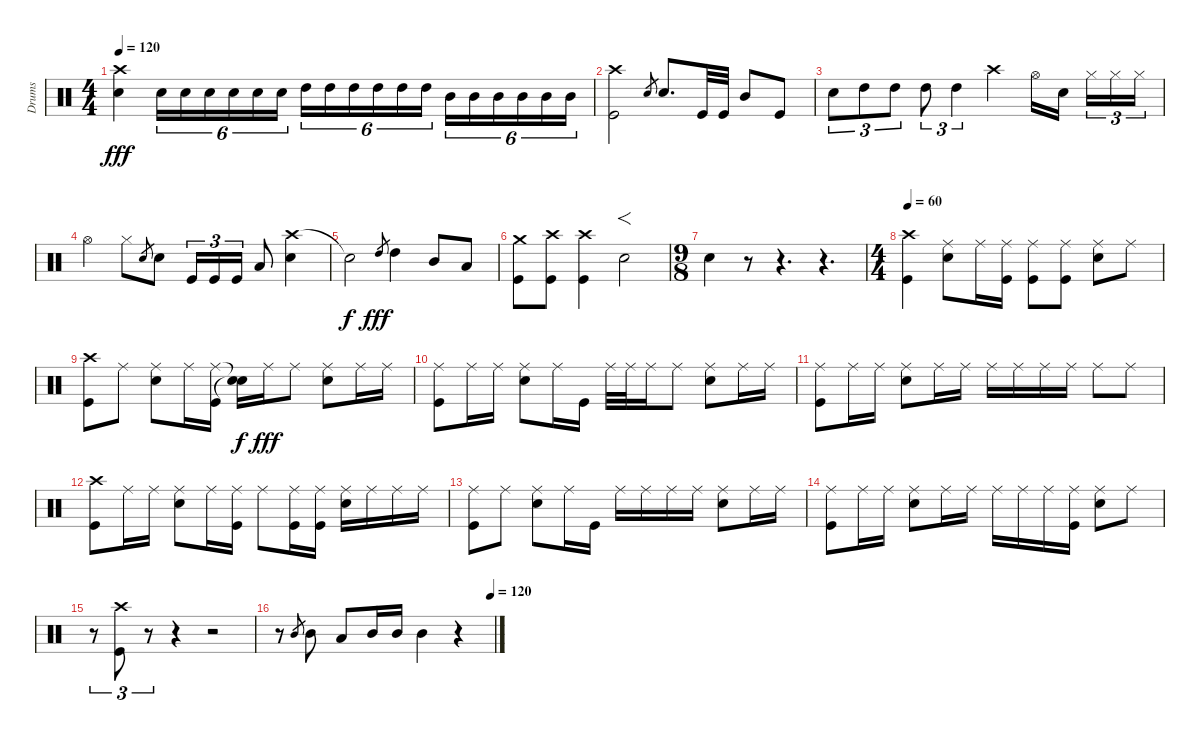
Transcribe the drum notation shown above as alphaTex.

\track ("Drums" "Drums") {instrument percussion}
\staff {score}
\articulation defaults
\ts (4 4)
\tempo 120
\clef neutral
\ks c
("Crash high (hit)" "Snare (hit) 2").4{dy fff} "Snare (hit) 2".16{tu (6 4)} "Snare (hit) 2".16{tu (6 4)} "Snare (hit) 2".16{tu (6 4)} "Snare (hit) 2".16{tu (6 4)} "Snare (hit) 2".16{tu (6 4)} "Snare (hit) 2".16{tu (6 4)} "High Tom (hit)".16{tu (6 4)} "High Tom (hit)".16{tu (6 4)} "High Tom (hit)".16{tu (6 4)} "High Tom (hit)".16{tu (6 4)} "High Tom (hit)".16{tu (6 4)} "High Tom (hit)".16{tu (6 4)} "Mid Tom (hit)".16{tu (6 4)} "Mid Tom (hit)".16{tu (6 4)} "Mid Tom (hit)".16{tu (6 4)} "Mid Tom (hit)".16{tu (6 4)} "Mid Tom (hit)".16{tu (6 4)} "Mid Tom (hit)".16{tu (6 4)} |
("Crash high (hit)" "Kick (hit)").2 "Snare (hit) 2".8{gr} "Snare (hit) 2".8{d} "Kick (hit)".32 "Kick (hit)".32 "Mid Tom (hit)".8 "Kick (hit)".8 |
"Snare (hit) 2".8{tu (3 2)} "High Tom (hit)".8{tu (3 2)} "High Tom (hit)".8{tu (3 2)} "High Tom (hit)".8{tu (3 2)} "High Tom (hit)".4{tu (3 2)} "Crash high (hit)".4 "Hi-Hat (open)".16 "Snare (hit) 2".16 "Hi-Hat (closed)".16{tu (3 2)} "Hi-Hat (closed)".16{tu (3 2)} "Hi-Hat (closed)".16{tu (3 2)} |
"Hi-Hat (open)".4 "Hi-Hat (closed)".8 "Snare (hit) 2".8{gr} "Snare (hit) 2".8 "Kick (hit)".16{tu (3 2)} "Kick (hit)".16{tu (3 2)} "Kick (hit)".16{tu (3 2)} "Low Tom (hit)".8 ("Crash high (hit)" "Snare (hit) 2").4 |
"Snare (hit)"{t}.2{dy f} "High Tom (hit)".8{gr dy fff} "High Tom (hit)".4 "Mid Tom (hit)".8 "Low Tom (hit)".8 |
("Crash medium (hit)" "Kick (hit)").8 ("Crash high (hit)" "Kick (hit)").8 ("Crash high (hit)" "Kick (hit)").4 "Snare (hit) 2".2{f} |
\ts (9 8)
"Snare (hit) 2".4 r.8 r.4{d} r.4{d} |
\ts (4 4)
\tempo 60
("Crash high (hit)" "Kick (hit)").4 ("Ride (middle)" "Snare (hit) 2").8 "Ride (middle)".16 ("Ride (middle)" "Kick (hit)").16 ("Ride (middle)" "Kick (hit)").8 ("Ride (middle)" "Kick (hit)").8 ("Ride (middle)" "Snare (hit) 2").8 "Ride (middle)".8 |
("Crash high (hit)" "Kick (hit)").8 "Ride (middle)".8 ("Ride (middle)" "Snare (hit) 2").8 "Ride (middle)".16 ("Ride (middle)" "Kick (hit)").16 ("Snare (hit)"{t} "Snare (hit)"{t}).16{dy f} "Ride (middle)".16{dy fff} "Ride (middle)".8 ("Ride (middle)" "Snare (hit) 2").8 "Ride (middle)".16 "Ride (middle)".16 |
("Ride (middle)" "Kick (hit)").8 "Ride (middle)".16 "Ride (middle)".16 ("Ride (middle)" "Snare (hit) 2").8 "Ride (middle)".16 "Kick (hit)".16 "Ride (middle)".32 "Ride (middle)".32 "Ride (middle)".16 "Ride (middle)".8 ("Ride (middle)" "Snare (hit) 2").8 "Ride (middle)".16 "Ride (middle)".16 |
("Ride (middle)" "Kick (hit)").8 "Ride (middle)".16 "Ride (middle)".16 ("Ride (middle)" "Snare (hit) 2").8 "Ride (middle)".16 "Ride (middle)".16 "Ride (middle)".16 "Ride (middle)".16 "Ride (middle)".16 "Ride (middle)".16 "Ride (middle)".8 "Ride (middle)".8 |
("Crash high (hit)" "Kick (hit)").8 "Ride (middle)".16 "Ride (middle)".16 ("Ride (middle)" "Snare (hit) 2").8 "Ride (middle)".16 ("Ride (middle)" "Kick (hit)").16 "Ride (middle)".8 ("Ride (middle)" "Kick (hit)").16 ("Ride (middle)" "Kick (hit)").16 ("Ride (middle)" "Snare (hit) 2").16 "Ride (middle)".16 "Ride (middle)".16 "Ride (middle)".16 |
("Ride (middle)" "Kick (hit)").8 "Ride (middle)".8 ("Ride (middle)" "Snare (hit) 2").8 "Ride (middle)".16 "Kick (hit)".16 "Ride (middle)".16 "Ride (middle)".16 "Ride (middle)".16 "Ride (middle)".16 ("Ride (middle)" "Snare (hit) 2").8 "Ride (middle)".16 "Ride (middle)".16 |
("Ride (middle)" "Kick (hit)").8 "Ride (middle)".16 "Ride (middle)".16 ("Ride (middle)" "Snare (hit) 2").8 "Ride (middle)".16 "Ride (middle)".16 "Ride (middle)".16 "Ride (middle)".16 "Ride (middle)".16 ("Ride (middle)" "Kick (hit)").16 ("Ride (middle)" "Snare (hit) 2").8 "Ride (middle)".8 |
r.8{tu (3 2)} ("Crash high (hit)" "Kick (hit)").8{tu (3 2)} r.8{tu (3 2)} r.4 r.2 |
\tempo (120 0.984375)
r.8 "Mid Tom (hit)".8{gr} "Mid Tom (hit)".8 "Low Tom (hit)".8 "Mid Tom (hit)".16 "Mid Tom (hit)".16 "Mid Tom (hit)".4 r.4
